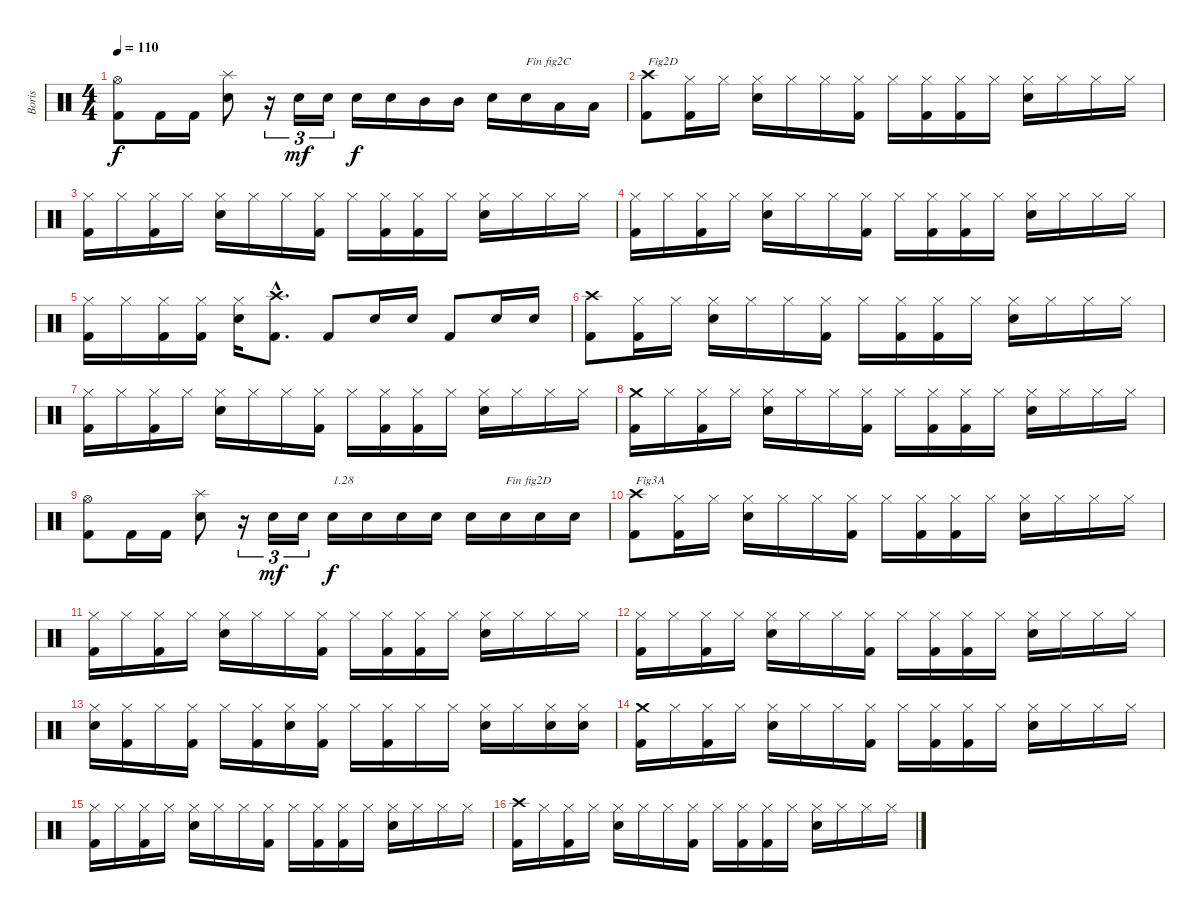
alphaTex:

\track ("Boris" "Boris") {instrument percussion}
\staff {score}
\articulation defaults
\ts (4 4)
\tempo 110
\clef neutral
\ks c
("Kick (hit) 2" "Hi-Hat (open)").8{dy f} "Kick (hit) 2".16 "Kick (hit) 2".16 ("Electric Snare (hit)" "Splash (hit)").8 r.16{tu (3 2)} "Electric Snare (hit)".16{tu (3 2) dy mf} "Electric Snare (hit)".16{tu (3 2)} "Electric Snare (hit)".16{dy f} "Electric Snare (hit)".16 "Mid Tom (hit)".16 "Mid Tom (hit)".16 "Electric Snare (hit)".16 "Electric Snare (hit)".16{txt "Fin fig2C"} "Low Tom (hit)".16 "Low Tom (hit)".16 |
("Kick (hit) 2" "Crash high (hit)").8{txt "Fig2D"} ("Kick (hit) 2" "Hi-Hat (closed)").16 "Hi-Hat (closed)".16 ("Electric Snare (hit)" "Hi-Hat (closed)").16 "Hi-Hat (closed)".16 "Hi-Hat (closed)".16 ("Kick (hit) 2" "Hi-Hat (closed)").16 "Hi-Hat (closed)".16 ("Kick (hit) 2" "Hi-Hat (closed)").16 ("Kick (hit) 2" "Hi-Hat (closed)").16 "Hi-Hat (closed)".16 ("Electric Snare (hit)" "Hi-Hat (closed)").16 "Hi-Hat (closed)".16 "Hi-Hat (closed)".16 "Hi-Hat (closed)".16 |
("Kick (hit) 2" "Hi-Hat (closed)").16 "Hi-Hat (closed)".16 ("Kick (hit) 2" "Hi-Hat (closed)").16 "Hi-Hat (closed)".16 ("Electric Snare (hit)" "Hi-Hat (closed)").16 "Hi-Hat (closed)".16 "Hi-Hat (closed)".16 ("Kick (hit) 2" "Hi-Hat (closed)").16 "Hi-Hat (closed)".16 ("Kick (hit) 2" "Hi-Hat (closed)").16 ("Kick (hit) 2" "Hi-Hat (closed)").16 "Hi-Hat (closed)".16 ("Electric Snare (hit)" "Hi-Hat (closed)").16 "Hi-Hat (closed)".16 "Hi-Hat (closed)".16 "Hi-Hat (closed)".16 |
("Kick (hit) 2" "Hi-Hat (closed)").16 "Hi-Hat (closed)".16 ("Kick (hit) 2" "Hi-Hat (closed)").16 "Hi-Hat (closed)".16 ("Electric Snare (hit)" "Hi-Hat (closed)").16 "Hi-Hat (closed)".16 "Hi-Hat (closed)".16 ("Kick (hit) 2" "Hi-Hat (closed)").16 "Hi-Hat (closed)".16 ("Kick (hit) 2" "Hi-Hat (closed)").16 ("Kick (hit) 2" "Hi-Hat (closed)").16 "Hi-Hat (closed)".16 ("Electric Snare (hit)" "Hi-Hat (closed)").16 "Hi-Hat (closed)".16 "Hi-Hat (closed)".16 "Hi-Hat (closed)".16 |
("Kick (hit) 2" "Hi-Hat (closed)").16 "Hi-Hat (closed)".16 ("Kick (hit) 2" "Hi-Hat (closed)").16 ("Kick (hit) 2" "Hi-Hat (closed)").16 ("Electric Snare (hit)" "Hi-Hat (closed)").16 ("Kick (hit) 2"{hac} "Crash high (hit)"{hac}).8{d} "Kick (hit) 2".8 "Electric Snare (hit)".16 "Electric Snare (hit)".16 "Kick (hit) 2".8 "Electric Snare (hit)".16 "Electric Snare (hit)".16 |
("Kick (hit) 2" "Crash high (hit)").8 ("Kick (hit) 2" "Hi-Hat (closed)").16 "Hi-Hat (closed)".16 ("Electric Snare (hit)" "Hi-Hat (closed)").16 "Hi-Hat (closed)".16 "Hi-Hat (closed)".16 ("Kick (hit) 2" "Hi-Hat (closed)").16 "Hi-Hat (closed)".16 ("Kick (hit) 2" "Hi-Hat (closed)").16 ("Kick (hit) 2" "Hi-Hat (closed)").16 "Hi-Hat (closed)".16 ("Electric Snare (hit)" "Hi-Hat (closed)").16 "Hi-Hat (closed)".16 "Hi-Hat (closed)".16 "Hi-Hat (closed)".16 |
("Kick (hit) 2" "Hi-Hat (closed)").16 "Hi-Hat (closed)".16 ("Kick (hit) 2" "Hi-Hat (closed)").16 "Hi-Hat (closed)".16 ("Electric Snare (hit)" "Hi-Hat (closed)").16 "Hi-Hat (closed)".16 "Hi-Hat (closed)".16 ("Kick (hit) 2" "Hi-Hat (closed)").16 "Hi-Hat (closed)".16 ("Kick (hit) 2" "Hi-Hat (closed)").16 ("Kick (hit) 2" "Hi-Hat (closed)").16 "Hi-Hat (closed)".16 ("Electric Snare (hit)" "Hi-Hat (closed)").16 "Hi-Hat (closed)".16 "Hi-Hat (closed)".16 "Hi-Hat (closed)".16 |
("Kick (hit) 2" "Crash medium (hit)").16 "Hi-Hat (closed)".16 ("Kick (hit) 2" "Hi-Hat (closed)").16 "Hi-Hat (closed)".16 ("Electric Snare (hit)" "Hi-Hat (closed)").16 "Hi-Hat (closed)".16 "Hi-Hat (closed)".16 ("Kick (hit) 2" "Hi-Hat (closed)").16 "Hi-Hat (closed)".16 ("Kick (hit) 2" "Hi-Hat (closed)").16 ("Kick (hit) 2" "Hi-Hat (closed)").16 "Hi-Hat (closed)".16 ("Electric Snare (hit)" "Hi-Hat (closed)").16 "Hi-Hat (closed)".16 "Hi-Hat (closed)".16 "Hi-Hat (closed)".16 |
("Kick (hit) 2" "Hi-Hat (open)").8 "Kick (hit) 2".16 "Kick (hit) 2".16 ("Electric Snare (hit)" "Splash (hit)").8 r.16{tu (3 2)} "Electric Snare (hit)".16{tu (3 2) dy mf} "Electric Snare (hit)".16{tu (3 2)} "Electric Snare (hit)".16{txt "1.28" dy f} "Electric Snare (hit)".16 "Electric Snare (hit)".16 "Electric Snare (hit)".16 "Electric Snare (hit)".16 "Electric Snare (hit)".16{txt "Fin fig2D"} "Electric Snare (hit)".16 "Electric Snare (hit)".16 |
("Kick (hit) 2" "Crash high (hit)").8{txt "Fig3A"} ("Kick (hit) 2" "Hi-Hat (closed)").16 "Hi-Hat (closed)".16 ("Electric Snare (hit)" "Hi-Hat (closed)").16 "Hi-Hat (closed)".16 "Hi-Hat (closed)".16 ("Kick (hit) 2" "Hi-Hat (closed)").16 "Hi-Hat (closed)".16 ("Kick (hit) 2" "Hi-Hat (closed)").16 ("Kick (hit) 2" "Hi-Hat (closed)").16 "Hi-Hat (closed)".16 ("Electric Snare (hit)" "Hi-Hat (closed)").16 "Hi-Hat (closed)".16 "Hi-Hat (closed)".16 "Hi-Hat (closed)".16 |
("Kick (hit) 2" "Hi-Hat (closed)").16 "Hi-Hat (closed)".16 ("Kick (hit) 2" "Hi-Hat (closed)").16 "Hi-Hat (closed)".16 ("Electric Snare (hit)" "Hi-Hat (closed)").16 "Hi-Hat (closed)".16 "Hi-Hat (closed)".16 ("Kick (hit) 2" "Hi-Hat (closed)").16 "Hi-Hat (closed)".16 ("Kick (hit) 2" "Hi-Hat (closed)").16 ("Kick (hit) 2" "Hi-Hat (closed)").16 "Hi-Hat (closed)".16 ("Electric Snare (hit)" "Hi-Hat (closed)").16 "Hi-Hat (closed)".16 "Hi-Hat (closed)".16 "Hi-Hat (closed)".16 |
("Kick (hit) 2" "Hi-Hat (closed)").16 "Hi-Hat (closed)".16 ("Kick (hit) 2" "Hi-Hat (closed)").16 "Hi-Hat (closed)".16 ("Electric Snare (hit)" "Hi-Hat (closed)").16 "Hi-Hat (closed)".16 "Hi-Hat (closed)".16 ("Kick (hit) 2" "Hi-Hat (closed)").16 "Hi-Hat (closed)".16 ("Kick (hit) 2" "Hi-Hat (closed)").16 ("Kick (hit) 2" "Hi-Hat (closed)").16 "Hi-Hat (closed)".16 ("Electric Snare (hit)" "Hi-Hat (closed)").16 "Hi-Hat (closed)".16 "Hi-Hat (closed)".16 "Hi-Hat (closed)".16 |
("Electric Snare (hit)" "Hi-Hat (closed)").16 ("Kick (hit) 2" "Hi-Hat (closed)").16 "Hi-Hat (closed)".16 ("Kick (hit) 2" "Hi-Hat (closed)").16 "Hi-Hat (closed)".16 ("Kick (hit) 2" "Hi-Hat (closed)").16 ("Electric Snare (hit)" "Hi-Hat (closed)").16 ("Kick (hit) 2" "Hi-Hat (closed)").16 "Hi-Hat (closed)".16 ("Kick (hit) 2" "Hi-Hat (closed)").16 "Hi-Hat (closed)".16 "Hi-Hat (closed)".16 ("Electric Snare (hit)" "Hi-Hat (closed)").16 "Hi-Hat (closed)".16 ("Electric Snare (hit)" "Hi-Hat (closed)").16 ("Electric Snare (hit)" "Hi-Hat (closed)").16 |
("Kick (hit) 2" "Crash medium (hit)").16 "Hi-Hat (closed)".16 ("Kick (hit) 2" "Hi-Hat (closed)").16 "Hi-Hat (closed)".16 ("Electric Snare (hit)" "Hi-Hat (closed)").16 "Hi-Hat (closed)".16 "Hi-Hat (closed)".16 ("Kick (hit) 2" "Hi-Hat (closed)").16 "Hi-Hat (closed)".16 ("Kick (hit) 2" "Hi-Hat (closed)").16 ("Kick (hit) 2" "Hi-Hat (closed)").16 "Hi-Hat (closed)".16 ("Electric Snare (hit)" "Hi-Hat (closed)").16 "Hi-Hat (closed)".16 "Hi-Hat (closed)".16 "Hi-Hat (closed)".16 |
("Kick (hit) 2" "Hi-Hat (closed)").16 "Hi-Hat (closed)".16 ("Kick (hit) 2" "Hi-Hat (closed)").16 "Hi-Hat (closed)".16 ("Electric Snare (hit)" "Hi-Hat (closed)").16 "Hi-Hat (closed)".16 "Hi-Hat (closed)".16 ("Kick (hit) 2" "Hi-Hat (closed)").16 "Hi-Hat (closed)".16 ("Kick (hit) 2" "Hi-Hat (closed)").16 ("Kick (hit) 2" "Hi-Hat (closed)").16 "Hi-Hat (closed)".16 ("Electric Snare (hit)" "Hi-Hat (closed)").16 "Hi-Hat (closed)".16 "Hi-Hat (closed)".16 "Hi-Hat (closed)".16 |
("Kick (hit) 2" "Crash high (hit)").16 "Hi-Hat (closed)".16 ("Kick (hit) 2" "Hi-Hat (closed)").16 "Hi-Hat (closed)".16 ("Electric Snare (hit)" "Hi-Hat (closed)").16 "Hi-Hat (closed)".16 "Hi-Hat (closed)".16 ("Kick (hit) 2" "Hi-Hat (closed)").16 "Hi-Hat (closed)".16 ("Kick (hit) 2" "Hi-Hat (closed)").16 ("Kick (hit) 2" "Hi-Hat (closed)").16 "Hi-Hat (closed)".16 ("Electric Snare (hit)" "Hi-Hat (closed)").16 "Hi-Hat (closed)".16 "Hi-Hat (closed)".16 "Hi-Hat (closed)".16
